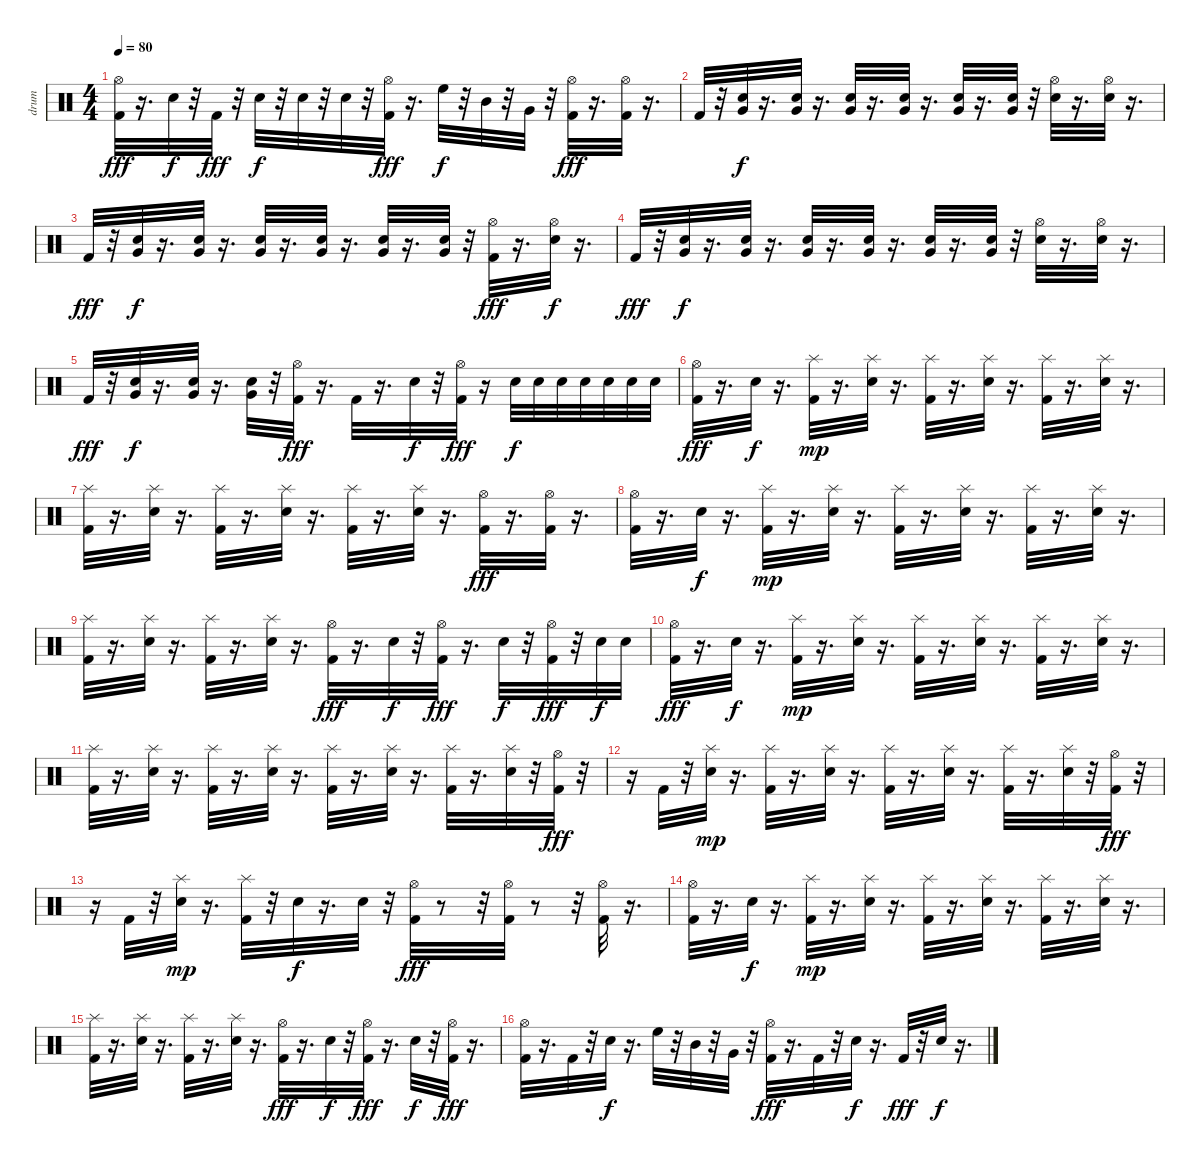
\track ("drum" "drum") {instrument percussion}
\staff {score}
\articulation defaults
\ts (4 4)
\tempo 80
\clef neutral
\ks c
("Hi-Hat (open)" "Kick (hit) 2").32{dy fff} r.16{d} "Snare (hit) 2".32{dy f} r.32 "Kick (hit) 2".32{dy fff} r.32 "Snare (hit) 2".32{dy f} r.32 "Snare (hit) 2".32 r.32 "Snare (hit) 2".32 r.32 ("Hi-Hat (open)" "Kick (hit) 2").32{dy fff} r.16{d} "High Floor Tom (hit)".32{dy f} r.32 "Mid Tom (hit)".32 r.32 "Very Low Tom (hit)".32 r.32 ("Hi-Hat (open)" "Kick (hit) 2").32{dy fff} r.16{d} ("Hi-Hat (open)" "Kick (hit) 2").32 r.16{d} |
"Kick (hit) 2".32 r.32 ("Snare (hit) 2" "Very Low Tom (hit)").32{dy f} r.16{d} ("Snare (hit) 2" "Very Low Tom (hit)").32 r.16{d} ("Very Low Tom (hit)" "Snare (hit) 2").32 r.16{d} ("Snare (hit) 2" "Very Low Tom (hit)").32 r.16{d} ("Snare (hit) 2" "Very Low Tom (hit)").32 r.16{d} ("Snare (hit) 2" "Very Low Tom (hit)").32 r.32 ("Snare (hit) 2" "Hi-Hat (open)").32 r.16{d} ("Snare (hit) 2" "Hi-Hat (open)").32 r.16{d} |
"Kick (hit) 2".32{dy fff} r.32 ("Snare (hit) 2" "Very Low Tom (hit)").32{dy f} r.16{d} ("Snare (hit) 2" "Very Low Tom (hit)").32 r.16{d} ("Very Low Tom (hit)" "Snare (hit) 2").32 r.16{d} ("Snare (hit) 2" "Very Low Tom (hit)").32 r.16{d} ("Snare (hit) 2" "Very Low Tom (hit)").32 r.16{d} ("Snare (hit) 2" "Very Low Tom (hit)").32 r.32 ("Kick (hit) 2" "Hi-Hat (open)").32{dy fff} r.16{d} ("Snare (hit) 2" "Hi-Hat (open)").32{dy f} r.16{d} |
"Kick (hit) 2".32{dy fff} r.32 ("Snare (hit) 2" "Very Low Tom (hit)").32{dy f} r.16{d} ("Snare (hit) 2" "Very Low Tom (hit)").32 r.16{d} ("Very Low Tom (hit)" "Snare (hit) 2").32 r.16{d} ("Snare (hit) 2" "Very Low Tom (hit)").32 r.16{d} ("Snare (hit) 2" "Very Low Tom (hit)").32 r.16{d} ("Snare (hit) 2" "Very Low Tom (hit)").32 r.32 ("Snare (hit) 2" "Hi-Hat (open)").32 r.16{d} ("Snare (hit) 2" "Hi-Hat (open)").32 r.16{d} |
"Kick (hit) 2".32{dy fff} r.32 ("Snare (hit) 2" "Very Low Tom (hit)").32{dy f} r.16{d} ("Snare (hit) 2" "Very Low Tom (hit)").32 r.16{d} ("Snare (hit) 2" "Very Low Tom (hit)").32 r.32 ("Kick (hit) 2" "Hi-Hat (open)").32{dy fff} r.16{d} "Kick (hit) 2".32 r.16{d} "Snare (hit) 2".32{dy f} r.32 ("Kick (hit) 2" "Hi-Hat (open)").32{dy fff} r.16 "Snare (hit) 2".32{dy f} "Snare (hit) 2".32 "Snare (hit) 2".32 "Snare (hit) 2".32 "Snare (hit) 2".32 "Snare (hit) 2".32 "Snare (hit) 2".32 |
("Kick (hit) 2" "Hi-Hat (open)").32{dy fff} r.16{d} "Snare (hit) 2".32{dy f} r.16{d} ("Kick (hit) 2" "Splash (hit)").32{dy mp} r.16{d} ("Snare (hit) 2" "Splash (hit)").32 r.16{d} ("Kick (hit) 2" "Splash (hit)").32 r.16{d} ("Snare (hit) 2" "Splash (hit)").32 r.16{d} ("Kick (hit) 2" "Splash (hit)").32 r.16{d} ("Snare (hit) 2" "Splash (hit)").32 r.16{d} |
("Kick (hit) 2" "Splash (hit)").32 r.16{d} ("Snare (hit) 2" "Splash (hit)").32 r.16{d} ("Kick (hit) 2" "Splash (hit)").32 r.16{d} ("Snare (hit) 2" "Splash (hit)").32 r.16{d} ("Kick (hit) 2" "Splash (hit)").32 r.16{d} ("Snare (hit) 2" "Splash (hit)").32 r.16{d} ("Kick (hit) 2" "Hi-Hat (open)").32{dy fff} r.16{d} ("Kick (hit) 2" "Hi-Hat (open)").32 r.16{d} |
("Kick (hit) 2" "Hi-Hat (open)").32 r.16{d} "Snare (hit) 2".32{dy f} r.16{d} ("Kick (hit) 2" "Splash (hit)").32{dy mp} r.16{d} ("Snare (hit) 2" "Splash (hit)").32 r.16{d} ("Kick (hit) 2" "Splash (hit)").32 r.16{d} ("Snare (hit) 2" "Splash (hit)").32 r.16{d} ("Kick (hit) 2" "Splash (hit)").32 r.16{d} ("Snare (hit) 2" "Splash (hit)").32 r.16{d} |
("Kick (hit) 2" "Splash (hit)").32 r.16{d} ("Snare (hit) 2" "Splash (hit)").32 r.16{d} ("Kick (hit) 2" "Splash (hit)").32 r.16{d} ("Snare (hit) 2" "Splash (hit)").32 r.16{d} ("Kick (hit) 2" "Hi-Hat (open)").32{dy fff} r.16{d} "Snare (hit) 2".32{dy f} r.32 ("Kick (hit) 2" "Hi-Hat (open)").32{dy fff} r.16{d} "Snare (hit) 2".32{dy f} r.32 ("Kick (hit) 2" "Hi-Hat (open)").32{dy fff} r.32 "Snare (hit) 2".32{dy f} "Snare (hit) 2".32 |
("Kick (hit) 2" "Hi-Hat (open)").32{dy fff} r.16{d} "Snare (hit) 2".32{dy f} r.16{d} ("Kick (hit) 2" "Splash (hit)").32{dy mp} r.16{d} ("Snare (hit) 2" "Splash (hit)").32 r.16{d} ("Kick (hit) 2" "Splash (hit)").32 r.16{d} ("Snare (hit) 2" "Splash (hit)").32 r.16{d} ("Kick (hit) 2" "Splash (hit)").32 r.16{d} ("Snare (hit) 2" "Splash (hit)").32 r.16{d} |
("Kick (hit) 2" "Splash (hit)").32 r.16{d} ("Snare (hit) 2" "Splash (hit)").32 r.16{d} ("Kick (hit) 2" "Splash (hit)").32 r.16{d} ("Snare (hit) 2" "Splash (hit)").32 r.16{d} ("Kick (hit) 2" "Splash (hit)").32 r.16{d} ("Snare (hit) 2" "Splash (hit)").32 r.16{d} ("Kick (hit) 2" "Splash (hit)").32 r.16{d} ("Snare (hit) 2" "Splash (hit)").32 r.32 ("Kick (hit) 2" "Hi-Hat (open)").32{dy fff} r.32 |
r.16 "Kick (hit) 2".32 r.32 ("Snare (hit) 2" "Splash (hit)").32{dy mp} r.16{d} ("Kick (hit) 2" "Splash (hit)").32 r.16{d} ("Snare (hit) 2" "Splash (hit)").32 r.16{d} ("Kick (hit) 2" "Splash (hit)").32 r.16{d} ("Snare (hit) 2" "Splash (hit)").32 r.16{d} ("Kick (hit) 2" "Splash (hit)").32 r.16{d} ("Snare (hit) 2" "Splash (hit)").32 r.32 ("Kick (hit) 2" "Hi-Hat (open)").32{dy fff} r.32 |
r.16 "Kick (hit) 2".32 r.32 ("Snare (hit) 2" "Splash (hit)").32{dy mp} r.16{d} ("Kick (hit) 2" "Splash (hit)").32 r.32 "Snare (hit) 2".32{dy f} r.16{d} "Snare (hit) 2".32 r.32 ("Kick (hit) 2" "Hi-Hat (open)").32{dy fff} r.8 r.32 ("Kick (hit) 2" "Hi-Hat (open)").32 r.8 r.32 ("Kick (hit) 2" "Hi-Hat (open)").32 r.16{d} |
("Kick (hit) 2" "Hi-Hat (open)").32 r.16{d} "Snare (hit) 2".32{dy f} r.16{d} ("Kick (hit) 2" "Splash (hit)").32{dy mp} r.16{d} ("Snare (hit) 2" "Splash (hit)").32 r.16{d} ("Kick (hit) 2" "Splash (hit)").32 r.16{d} ("Snare (hit) 2" "Splash (hit)").32 r.16{d} ("Kick (hit) 2" "Splash (hit)").32 r.16{d} ("Snare (hit) 2" "Splash (hit)").32 r.16{d} |
("Kick (hit) 2" "Splash (hit)").32 r.16{d} ("Splash (hit)" "Snare (hit) 2").32 r.16{d} ("Kick (hit) 2" "Splash (hit)").32 r.16{d} ("Splash (hit)" "Snare (hit) 2").32 r.16{d} ("Kick (hit) 2" "Hi-Hat (open)").32{dy fff} r.16{d} "Snare (hit) 2".32{dy f} r.32 ("Kick (hit) 2" "Hi-Hat (open)").32{dy fff} r.16{d} "Snare (hit) 2".32{dy f} r.32 ("Kick (hit) 2" "Hi-Hat (open)").32{dy fff} r.16{d} |
("Hi-Hat (open)" "Kick (hit) 2").32 r.16{d} "Kick (hit) 2".32 r.32 "Snare (hit) 2".32{dy f} r.16{d} "High Floor Tom (hit)".32 r.32 "Mid Tom (hit)".32 r.32 "Very Low Tom (hit)".32 r.32 ("Hi-Hat (open)" "Kick (hit) 2").32{dy fff} r.16{d} "Kick (hit) 2".32 r.32 "Snare (hit) 2".32{dy f} r.16{d} "Kick (hit) 2".32{dy fff} r.32 "Snare (hit) 2".32{dy f} r.16{d}
